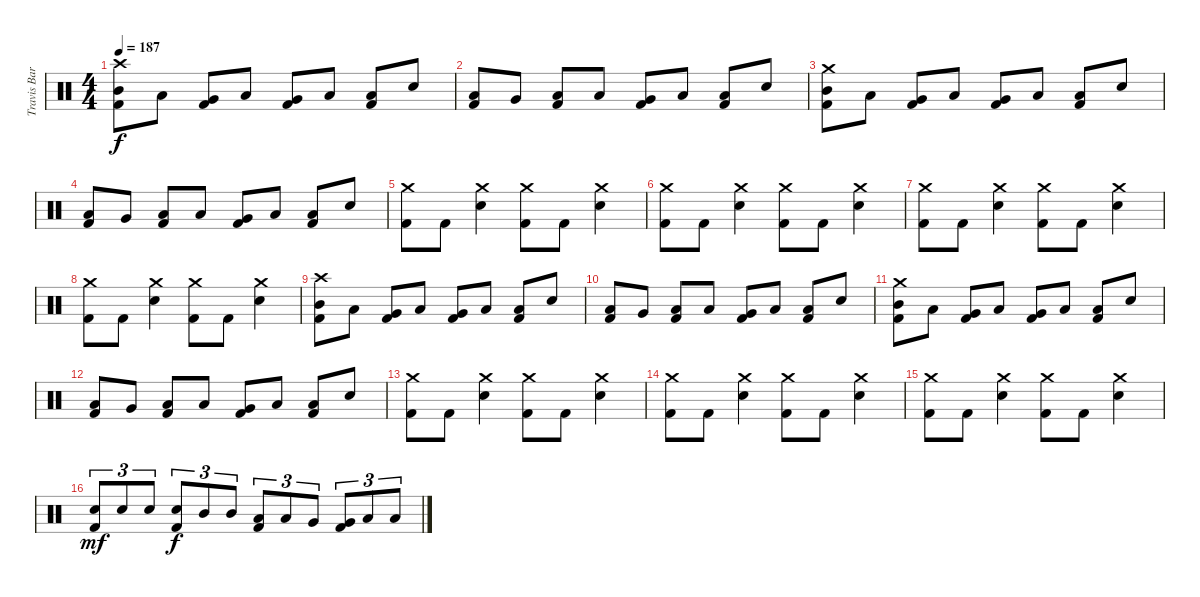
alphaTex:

\track ("Travis Barker Drums" "Travis Bar") {instrument percussion}
\staff {score}
\articulation defaults
\ts (4 4)
\tempo 187
\clef neutral
\ks c
("Crash high (hit)" "Mid Tom (hit)" "Kick (hit) 2").8{dy f} "Low Tom (hit)".8 ("Very Low Tom (hit)" "Kick (hit) 2").8 "Low Floor Tom (hit)".8 ("Very Low Tom (hit)" "Kick (hit) 2").8 "Low Floor Tom (hit)".8 ("Low Floor Tom (hit)" "Kick (hit) 2").8 "Electric Snare (hit)".8 |
("Low Tom (hit)" "Kick (hit) 2").8 "Very Low Tom (hit)".8 ("Low Floor Tom (hit)" "Kick (hit) 2").8 "Low Floor Tom (hit)".8 ("Very Low Tom (hit)" "Kick (hit) 2").8 "Low Floor Tom (hit)".8 ("Low Floor Tom (hit)" "Kick (hit) 2").8 "Electric Snare (hit)".8 |
("Crash medium (hit)" "Mid Tom (hit)" "Kick (hit) 2").8 "Low Tom (hit)".8 ("Very Low Tom (hit)" "Kick (hit) 2").8 "Low Floor Tom (hit)".8 ("Very Low Tom (hit)" "Kick (hit) 2").8 "Low Floor Tom (hit)".8 ("Low Floor Tom (hit)" "Kick (hit) 2").8 "Electric Snare (hit)".8 |
("Low Tom (hit)" "Kick (hit) 2").8 "Very Low Tom (hit)".8 ("Low Floor Tom (hit)" "Kick (hit) 2").8 "Low Floor Tom (hit)".8 ("Very Low Tom (hit)" "Kick (hit) 2").8 "Low Floor Tom (hit)".8 ("Low Floor Tom (hit)" "Kick (hit) 2").8 "Electric Snare (hit)".8 |
("Crash medium (hit)" "Kick (hit) 2").8 "Kick (hit) 2".8 ("Crash medium (hit)" "Electric Snare (hit)").4 ("Crash medium (hit)" "Kick (hit) 2").8 "Kick (hit) 2".8 ("Crash medium (hit)" "Electric Snare (hit)").4 |
("Crash medium (hit)" "Kick (hit) 2").8 "Kick (hit) 2".8 ("Crash medium (hit)" "Electric Snare (hit)").4 ("Crash medium (hit)" "Kick (hit) 2").8 "Kick (hit) 2".8 ("Crash medium (hit)" "Electric Snare (hit)").4 |
("Crash medium (hit)" "Kick (hit) 2").8 "Kick (hit) 2".8 ("Crash medium (hit)" "Electric Snare (hit)").4 ("Crash medium (hit)" "Kick (hit) 2").8 "Kick (hit) 2".8 ("Crash medium (hit)" "Electric Snare (hit)").4 |
("Crash medium (hit)" "Kick (hit) 2").8 "Kick (hit) 2".8 ("Crash medium (hit)" "Electric Snare (hit)").4 ("Crash medium (hit)" "Kick (hit) 2").8 "Kick (hit) 2".8 ("Crash medium (hit)" "Electric Snare (hit)").4 |
("Crash high (hit)" "Mid Tom (hit)" "Kick (hit) 2").8 "Low Tom (hit)".8 ("Very Low Tom (hit)" "Kick (hit) 2").8 "Low Floor Tom (hit)".8 ("Very Low Tom (hit)" "Kick (hit) 2").8 "Low Floor Tom (hit)".8 ("Low Floor Tom (hit)" "Kick (hit) 2").8 "Electric Snare (hit)".8 |
("Low Tom (hit)" "Kick (hit) 2").8 "Very Low Tom (hit)".8 ("Low Floor Tom (hit)" "Kick (hit) 2").8 "Low Floor Tom (hit)".8 ("Very Low Tom (hit)" "Kick (hit) 2").8 "Low Floor Tom (hit)".8 ("Low Floor Tom (hit)" "Kick (hit) 2").8 "Electric Snare (hit)".8 |
("Crash medium (hit)" "Mid Tom (hit)" "Kick (hit) 2").8 "Low Tom (hit)".8 ("Very Low Tom (hit)" "Kick (hit) 2").8 "Low Floor Tom (hit)".8 ("Very Low Tom (hit)" "Kick (hit) 2").8 "Low Floor Tom (hit)".8 ("Low Floor Tom (hit)" "Kick (hit) 2").8 "Electric Snare (hit)".8 |
("Low Tom (hit)" "Kick (hit) 2").8 "Very Low Tom (hit)".8 ("Low Floor Tom (hit)" "Kick (hit) 2").8 "Low Floor Tom (hit)".8 ("Very Low Tom (hit)" "Kick (hit) 2").8 "Low Floor Tom (hit)".8 ("Low Floor Tom (hit)" "Kick (hit) 2").8 "Electric Snare (hit)".8 |
("Crash medium (hit)" "Kick (hit) 2").8 "Kick (hit) 2".8 ("Crash medium (hit)" "Electric Snare (hit)").4 ("Crash medium (hit)" "Kick (hit) 2").8 "Kick (hit) 2".8 ("Crash medium (hit)" "Electric Snare (hit)").4 |
("Crash medium (hit)" "Kick (hit) 2").8 "Kick (hit) 2".8 ("Crash medium (hit)" "Electric Snare (hit)").4 ("Crash medium (hit)" "Kick (hit) 2").8 "Kick (hit) 2".8 ("Crash medium (hit)" "Electric Snare (hit)").4 |
("Crash medium (hit)" "Kick (hit) 2").8 "Kick (hit) 2".8 ("Crash medium (hit)" "Electric Snare (hit)").4 ("Crash medium (hit)" "Kick (hit) 2").8 "Kick (hit) 2".8 ("Crash medium (hit)" "Electric Snare (hit)").4 |
("Electric Snare (hit)" "Kick (hit) 2").8{tu (3 2) dy mf} "Electric Snare (hit)".8{tu (3 2)} "Electric Snare (hit)".8{tu (3 2)} ("Electric Snare (hit)" "Kick (hit) 2").8{tu (3 2) dy f} "Mid Tom (hit)".8{tu (3 2)} "Mid Tom (hit)".8{tu (3 2)} ("Low Tom (hit)" "Kick (hit) 2").8{tu (3 2)} "Low Tom (hit)".8{tu (3 2)} "Very Low Tom (hit)".8{tu (3 2)} ("Very Low Tom (hit)" "Kick (hit) 2").8{tu (3 2)} "Low Floor Tom (hit)".8{tu (3 2)} "Low Floor Tom (hit)".8{tu (3 2)}
